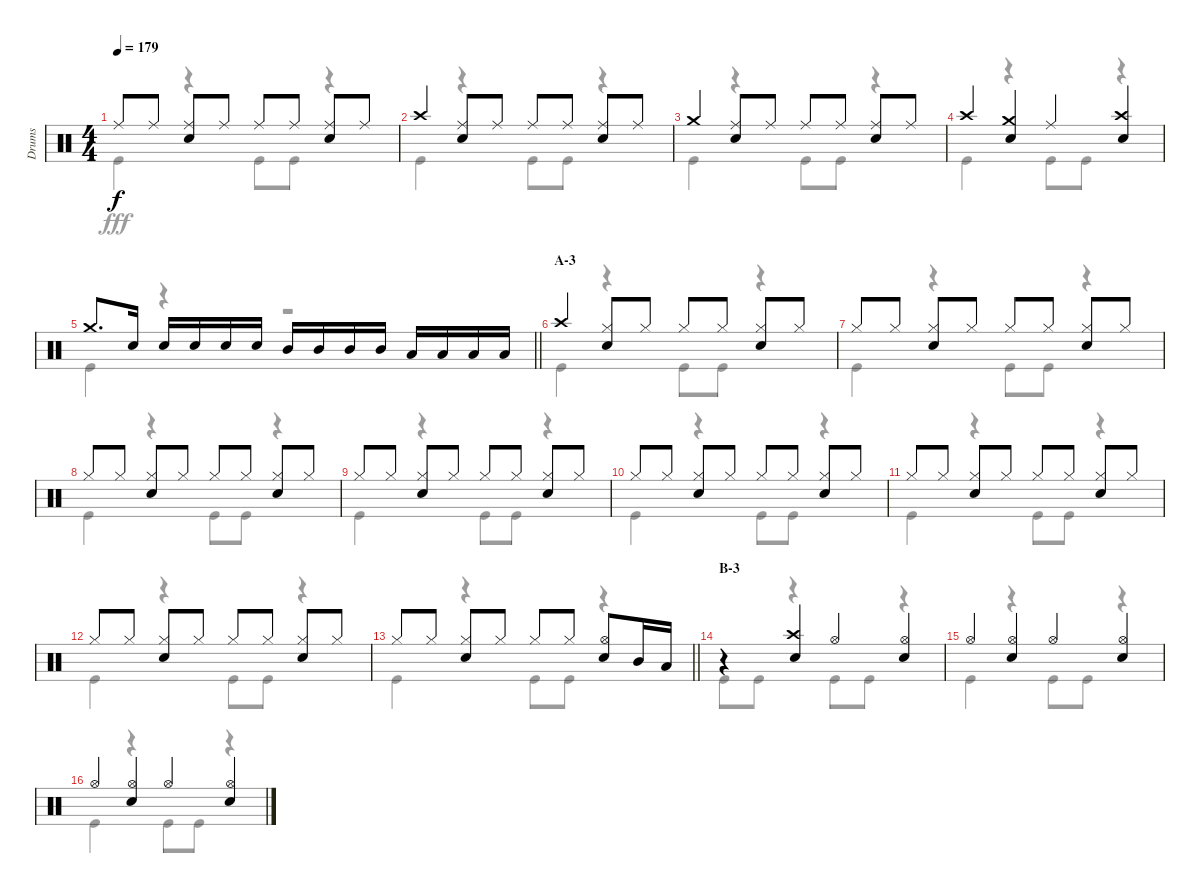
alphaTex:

\track ("Drums" "Drums") {instrument percussion}
\staff {score}
\articulation defaults
\voice
\ts (4 4)
\tempo 179
\clef neutral
\ks c "Ride (middle)".8{dy f} "Ride (middle)".8
("Ride (middle)" "Snare (hit) 2").8 "Ride (middle)".8 "Ride (middle)".8 "Ride (middle)".8 ("Ride (middle)" "Snare (hit) 2").8 "Ride (middle)".8 |
"Crash high (hit)".4 ("Ride (middle)" "Snare (hit) 2").8 "Ride (middle)".8 "Ride (middle)".8 "Ride (middle)".8 ("Ride (middle)" "Snare (hit) 2").8 "Ride (middle)".8 |
"Crash medium (hit)".4 ("Ride (middle)" "Snare (hit) 2").8 "Ride (middle)".8 "Ride (middle)".8 "Ride (middle)".8 ("Ride (middle)" "Snare (hit) 2").8 "Ride (middle)".8 |
"Crash high (hit)".4 ("Crash medium (hit)" "Snare (hit) 2").4 "Ride (middle)".4 ("Crash high (hit)" "Snare (hit) 2").4 |
\barLineRight lightlight "Crash medium (hit)".8{d} "Snare (hit) 2".16 "Snare (hit) 2".16 "Snare (hit) 2".16 "Snare (hit) 2".16 "Snare (hit) 2".16 "Mid Tom (hit)".16 "Mid Tom (hit)".16 "Mid Tom (hit)".16 "Mid Tom (hit)".16 "Low Tom (hit)".16 "Low Tom (hit)".16 "Low Tom (hit)".16 "Low Tom (hit)".16
|
\section ("" "A-3")
"Crash high (hit)".4 ("Snare (hit) 2" "Hi-Hat (closed)").8 "Hi-Hat (closed)".8 "Hi-Hat (closed)".8 "Hi-Hat (closed)".8 ("Hi-Hat (closed)" "Snare (hit) 2").8 "Hi-Hat (closed)".8 |
"Hi-Hat (closed)".8 "Hi-Hat (closed)".8 ("Snare (hit) 2" "Hi-Hat (closed)").8 "Hi-Hat (closed)".8 "Hi-Hat (closed)".8 "Hi-Hat (closed)".8 ("Hi-Hat (closed)" "Snare (hit) 2").8 "Hi-Hat (closed)".8 |
"Hi-Hat (closed)".8 "Hi-Hat (closed)".8 ("Snare (hit) 2" "Hi-Hat (closed)").8 "Hi-Hat (closed)".8 "Hi-Hat (closed)".8 "Hi-Hat (closed)".8 ("Hi-Hat (closed)" "Snare (hit) 2").8 "Hi-Hat (closed)".8 |
"Hi-Hat (closed)".8 "Hi-Hat (closed)".8 ("Snare (hit) 2" "Hi-Hat (closed)").8 "Hi-Hat (closed)".8 "Hi-Hat (closed)".8 "Hi-Hat (closed)".8 ("Hi-Hat (closed)" "Snare (hit) 2").8 "Hi-Hat (closed)".8 |
"Hi-Hat (closed)".8 "Hi-Hat (closed)".8 ("Snare (hit) 2" "Hi-Hat (closed)").8 "Hi-Hat (closed)".8 "Hi-Hat (closed)".8 "Hi-Hat (closed)".8 ("Hi-Hat (closed)" "Snare (hit) 2").8 "Hi-Hat (closed)".8 |
"Hi-Hat (closed)".8 "Hi-Hat (closed)".8 ("Snare (hit) 2" "Hi-Hat (closed)").8 "Hi-Hat (closed)".8 "Hi-Hat (closed)".8 "Hi-Hat (closed)".8 ("Hi-Hat (closed)" "Snare (hit) 2").8 "Hi-Hat (closed)".8 |
"Hi-Hat (closed)".8 "Hi-Hat (closed)".8 ("Snare (hit) 2" "Hi-Hat (closed)").8 "Hi-Hat (closed)".8 "Hi-Hat (closed)".8 "Hi-Hat (closed)".8 ("Hi-Hat (closed)" "Snare (hit) 2").8 "Hi-Hat (closed)".8 |
\barLineRight lightlight "Hi-Hat (closed)".8 "Hi-Hat (closed)".8
("Snare (hit) 2" "Hi-Hat (closed)").8 "Hi-Hat (closed)".8 "Hi-Hat (closed)".8 "Hi-Hat (closed)".8 ("Hi-Hat (open)" "Snare (hit) 2").8 "Mid Tom (hit)".16 "Low Tom (hit)".16 |
\section ("" "B-3")
r.4 ("Crash high (hit)" "Snare (hit) 2").4 "Hi-Hat (open)".4 ("Hi-Hat (open)" "Snare (hit) 2").4 |
"Hi-Hat (open)".4 ("Hi-Hat (open)" "Snare (hit) 2").4 "Hi-Hat (open)".4 ("Hi-Hat (open)" "Snare (hit) 2").4 |
"Hi-Hat (open)".4 ("Hi-Hat (open)" "Snare (hit) 2").4 "Hi-Hat (open)".4 ("Hi-Hat (open)" "Snare (hit) 2").4
\voice
\clef neutral
\ottava regular
\simile none
\ks c "Kick (hit)".4{dy fff}
r.4 "Kick (hit)".8 "Kick (hit)".8 r.4 |
"Kick (hit)".4 r.4 "Kick (hit)".8 "Kick (hit)".8 r.4 |
"Kick (hit)".4 r.4 "Kick (hit)".8 "Kick (hit)".8 r.4 |
"Kick (hit)".4 r.4 "Kick (hit)".8 "Kick (hit)".8 r.4 |
\barLineRight lightlight "Kick (hit)".4
r.4 r.2 |
"Kick (hit)".4 r.4 "Kick (hit)".8 "Kick (hit)".8 r.4 |
"Kick (hit)".4 r.4 "Kick (hit)".8 "Kick (hit)".8 r.4 |
"Kick (hit)".4 r.4 "Kick (hit)".8 "Kick (hit)".8 r.4 |
"Kick (hit)".4 r.4 "Kick (hit)".8 "Kick (hit)".8 r.4 |
"Kick (hit)".4 r.4 "Kick (hit)".8 "Kick (hit)".8 r.4 |
"Kick (hit)".4 r.4 "Kick (hit)".8 "Kick (hit)".8 r.4 |
"Kick (hit)".4 r.4 "Kick (hit)".8 "Kick (hit)".8 r.4 |
\barLineRight lightlight "Kick (hit)".4
r.4 "Kick (hit)".8 "Kick (hit)".8 r.4 |
"Kick (hit)".8 "Kick (hit)".8 r.4 "Kick (hit)".8 "Kick (hit)".8 r.4 |
"Kick (hit)".4 r.4 "Kick (hit)".8 "Kick (hit)".8 r.4 |
"Kick (hit)".4 r.4 "Kick (hit)".8 "Kick (hit)".8 r.4
